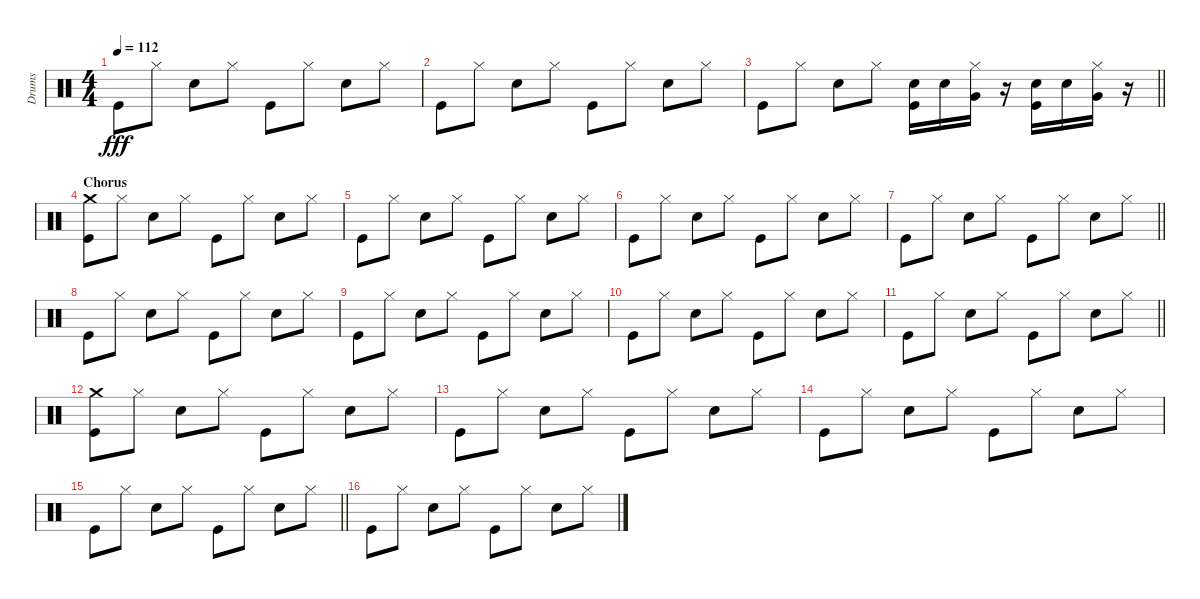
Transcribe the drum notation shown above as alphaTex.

\track ("Drums" "Drums") {instrument percussion}
\staff {score}
\articulation defaults
\ts (4 4)
\tempo 112
\clef neutral
\ks c "Kick (hit)".8{dy fff} "Hi-Hat (closed)".8 "Snare (hit) 2".8 "Hi-Hat (closed)".8 "Kick (hit)".8 "Hi-Hat (closed)".8 "Snare (hit) 2".8 "Hi-Hat (closed)".8
|
"Kick (hit)".8 "Hi-Hat (closed)".8 "Snare (hit) 2".8 "Hi-Hat (closed)".8 "Kick (hit)".8 "Hi-Hat (closed)".8 "Snare (hit) 2".8 "Hi-Hat (closed)".8 |
\barLineRight lightlight "Kick (hit)".8 "Hi-Hat (closed)".8 "Snare (hit) 2".8 "Hi-Hat (closed)".8
("Snare (hit) 2" "Kick (hit)").16 "Snare (hit) 2".16 ("Hi-Hat (closed)" "Very Low Tom (hit)").16 r.16 ("Snare (hit) 2" "Kick (hit)").16 "Snare (hit) 2".16 ("Hi-Hat (closed)" "Very Low Tom (hit)").16 r.16 |
\section ("" "Chorus")
("Crash medium (hit)" "Kick (hit)").8 "Hi-Hat (closed)".8 "Snare (hit) 2".8 "Hi-Hat (closed)".8 "Kick (hit)".8 "Hi-Hat (closed)".8 "Snare (hit) 2".8 "Hi-Hat (closed)".8 |
"Kick (hit)".8 "Hi-Hat (closed)".8 "Snare (hit) 2".8 "Hi-Hat (closed)".8 "Kick (hit)".8 "Hi-Hat (closed)".8 "Snare (hit) 2".8 "Hi-Hat (closed)".8 |
"Kick (hit)".8 "Hi-Hat (closed)".8 "Snare (hit) 2".8 "Hi-Hat (closed)".8 "Kick (hit)".8 "Hi-Hat (closed)".8 "Snare (hit) 2".8 "Hi-Hat (closed)".8 |
\barLineRight lightlight "Kick (hit)".8 "Hi-Hat (closed)".8 "Snare (hit) 2".8 "Hi-Hat (closed)".8 "Kick (hit)".8 "Hi-Hat (closed)".8 "Snare (hit) 2".8 "Hi-Hat (closed)".8
|
"Kick (hit)".8 "Hi-Hat (closed)".8 "Snare (hit) 2".8 "Hi-Hat (closed)".8 "Kick (hit)".8 "Hi-Hat (closed)".8 "Snare (hit) 2".8 "Hi-Hat (closed)".8 |
"Kick (hit)".8 "Hi-Hat (closed)".8 "Snare (hit) 2".8 "Hi-Hat (closed)".8 "Kick (hit)".8 "Hi-Hat (closed)".8 "Snare (hit) 2".8 "Hi-Hat (closed)".8 |
"Kick (hit)".8 "Hi-Hat (closed)".8 "Snare (hit) 2".8 "Hi-Hat (closed)".8 "Kick (hit)".8 "Hi-Hat (closed)".8 "Snare (hit) 2".8 "Hi-Hat (closed)".8 |
\barLineRight lightlight "Kick (hit)".8 "Hi-Hat (closed)".8 "Snare (hit) 2".8 "Hi-Hat (closed)".8 "Kick (hit)".8 "Hi-Hat (closed)".8 "Snare (hit) 2".8 "Hi-Hat (closed)".8
|
("Crash medium (hit)" "Kick (hit)").8 "Hi-Hat (closed)".8 "Snare (hit) 2".8 "Hi-Hat (closed)".8 "Kick (hit)".8 "Hi-Hat (closed)".8 "Snare (hit) 2".8 "Hi-Hat (closed)".8 |
"Kick (hit)".8 "Hi-Hat (closed)".8 "Snare (hit) 2".8 "Hi-Hat (closed)".8 "Kick (hit)".8 "Hi-Hat (closed)".8 "Snare (hit) 2".8 "Hi-Hat (closed)".8 |
"Kick (hit)".8 "Hi-Hat (closed)".8 "Snare (hit) 2".8 "Hi-Hat (closed)".8 "Kick (hit)".8 "Hi-Hat (closed)".8 "Snare (hit) 2".8 "Hi-Hat (closed)".8 |
\barLineRight lightlight "Kick (hit)".8 "Hi-Hat (closed)".8 "Snare (hit) 2".8 "Hi-Hat (closed)".8 "Kick (hit)".8 "Hi-Hat (closed)".8 "Snare (hit) 2".8 "Hi-Hat (closed)".8
|
"Kick (hit)".8 "Hi-Hat (closed)".8 "Snare (hit) 2".8 "Hi-Hat (closed)".8 "Kick (hit)".8 "Hi-Hat (closed)".8 "Snare (hit) 2".8 "Hi-Hat (closed)".8
